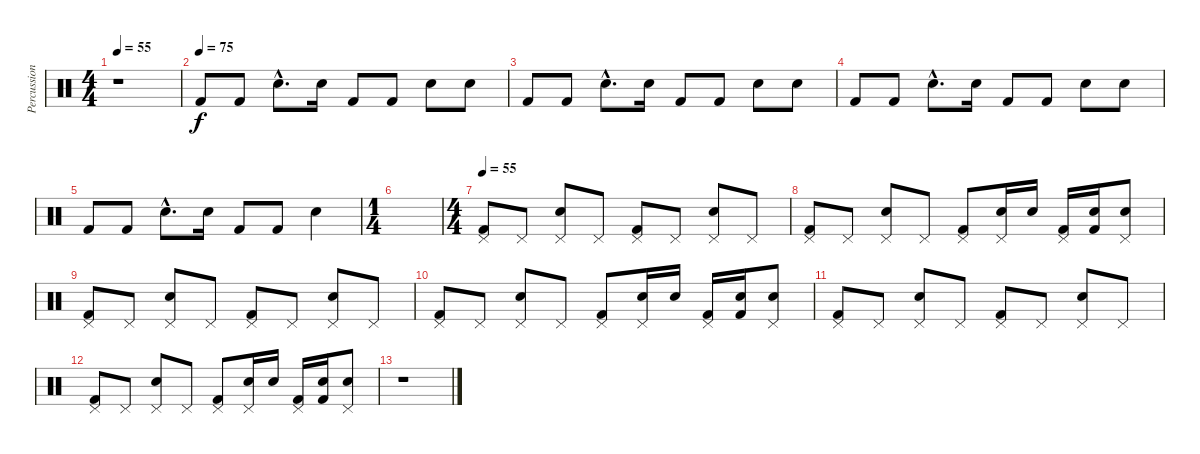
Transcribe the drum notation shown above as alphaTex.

\track ("Percussions" "Percussion") {instrument percussion}
\staff {score}
\articulation defaults
\ts (4 4)
\tempo 55
\clef neutral
\ks c
r.1{dy f} |
\tempo (75)
"Kick (hit) 2".8 "Kick (hit) 2".8 "Electric Snare (hit)"{hac}.8{d} "Electric Snare (hit)".16 "Kick (hit) 2".8 "Kick (hit) 2".8 "Electric Snare (hit)".8 "Electric Snare (hit)".8 |
"Kick (hit) 2".8 "Kick (hit) 2".8 "Electric Snare (hit)"{hac}.8{d} "Electric Snare (hit)".16 "Kick (hit) 2".8 "Kick (hit) 2".8 "Electric Snare (hit)".8 "Electric Snare (hit)".8 |
"Kick (hit) 2".8 "Kick (hit) 2".8 "Electric Snare (hit)"{hac}.8{d} "Electric Snare (hit)".16 "Kick (hit) 2".8 "Kick (hit) 2".8 "Electric Snare (hit)".8 "Electric Snare (hit)".8 |
"Kick (hit) 2".8 "Kick (hit) 2".8 "Electric Snare (hit)"{hac}.8{d} "Electric Snare (hit)".16 "Kick (hit) 2".8 "Kick (hit) 2".8 "Electric Snare (hit)".4 |
\ts (1 4)
|
\ts (4 4)
\tempo 55
("Pedal Hi-Hat (hit)" "Kick (hit) 2").8 "Pedal Hi-Hat (hit)".8 ("Pedal Hi-Hat (hit)" "Electric Snare (hit)").8 "Pedal Hi-Hat (hit)".8 ("Pedal Hi-Hat (hit)" "Kick (hit) 2").8 "Pedal Hi-Hat (hit)".8 ("Pedal Hi-Hat (hit)" "Electric Snare (hit)").8 "Pedal Hi-Hat (hit)".8 |
("Pedal Hi-Hat (hit)" "Kick (hit) 2").8 "Pedal Hi-Hat (hit)".8 ("Pedal Hi-Hat (hit)" "Electric Snare (hit)").8 "Pedal Hi-Hat (hit)".8 ("Pedal Hi-Hat (hit)" "Kick (hit) 2").8 ("Pedal Hi-Hat (hit)" "Electric Snare (hit)").16 "Electric Snare (hit)".16 ("Pedal Hi-Hat (hit)" "Kick (hit) 2").16 ("Electric Snare (hit)" "Kick (hit) 2").16 ("Pedal Hi-Hat (hit)" "Electric Snare (hit)").8 |
("Pedal Hi-Hat (hit)" "Kick (hit) 2").8{volume 6} "Pedal Hi-Hat (hit)".8 ("Pedal Hi-Hat (hit)" "Electric Snare (hit)").8 "Pedal Hi-Hat (hit)".8 ("Pedal Hi-Hat (hit)" "Kick (hit) 2").8 "Pedal Hi-Hat (hit)".8 ("Pedal Hi-Hat (hit)" "Electric Snare (hit)").8 "Pedal Hi-Hat (hit)".8 |
("Pedal Hi-Hat (hit)" "Kick (hit) 2").8 "Pedal Hi-Hat (hit)".8 ("Pedal Hi-Hat (hit)" "Electric Snare (hit)").8 "Pedal Hi-Hat (hit)".8 ("Pedal Hi-Hat (hit)" "Kick (hit) 2").8 ("Pedal Hi-Hat (hit)" "Electric Snare (hit)").16 "Electric Snare (hit)".16 ("Pedal Hi-Hat (hit)" "Kick (hit) 2").16 ("Electric Snare (hit)" "Kick (hit) 2").16 ("Pedal Hi-Hat (hit)" "Electric Snare (hit)").8 |
("Pedal Hi-Hat (hit)" "Kick (hit) 2").8{volume 0} "Pedal Hi-Hat (hit)".8 ("Pedal Hi-Hat (hit)" "Electric Snare (hit)").8 "Pedal Hi-Hat (hit)".8 ("Pedal Hi-Hat (hit)" "Kick (hit) 2").8 "Pedal Hi-Hat (hit)".8 ("Pedal Hi-Hat (hit)" "Electric Snare (hit)").8 "Pedal Hi-Hat (hit)".8 |
("Pedal Hi-Hat (hit)" "Kick (hit) 2").8 "Pedal Hi-Hat (hit)".8 ("Pedal Hi-Hat (hit)" "Electric Snare (hit)").8 "Pedal Hi-Hat (hit)".8 ("Pedal Hi-Hat (hit)" "Kick (hit) 2").8 ("Pedal Hi-Hat (hit)" "Electric Snare (hit)").16 "Electric Snare (hit)".16 ("Pedal Hi-Hat (hit)" "Kick (hit) 2").16 ("Electric Snare (hit)" "Kick (hit) 2").16 ("Pedal Hi-Hat (hit)" "Electric Snare (hit)").8 |
r.1
